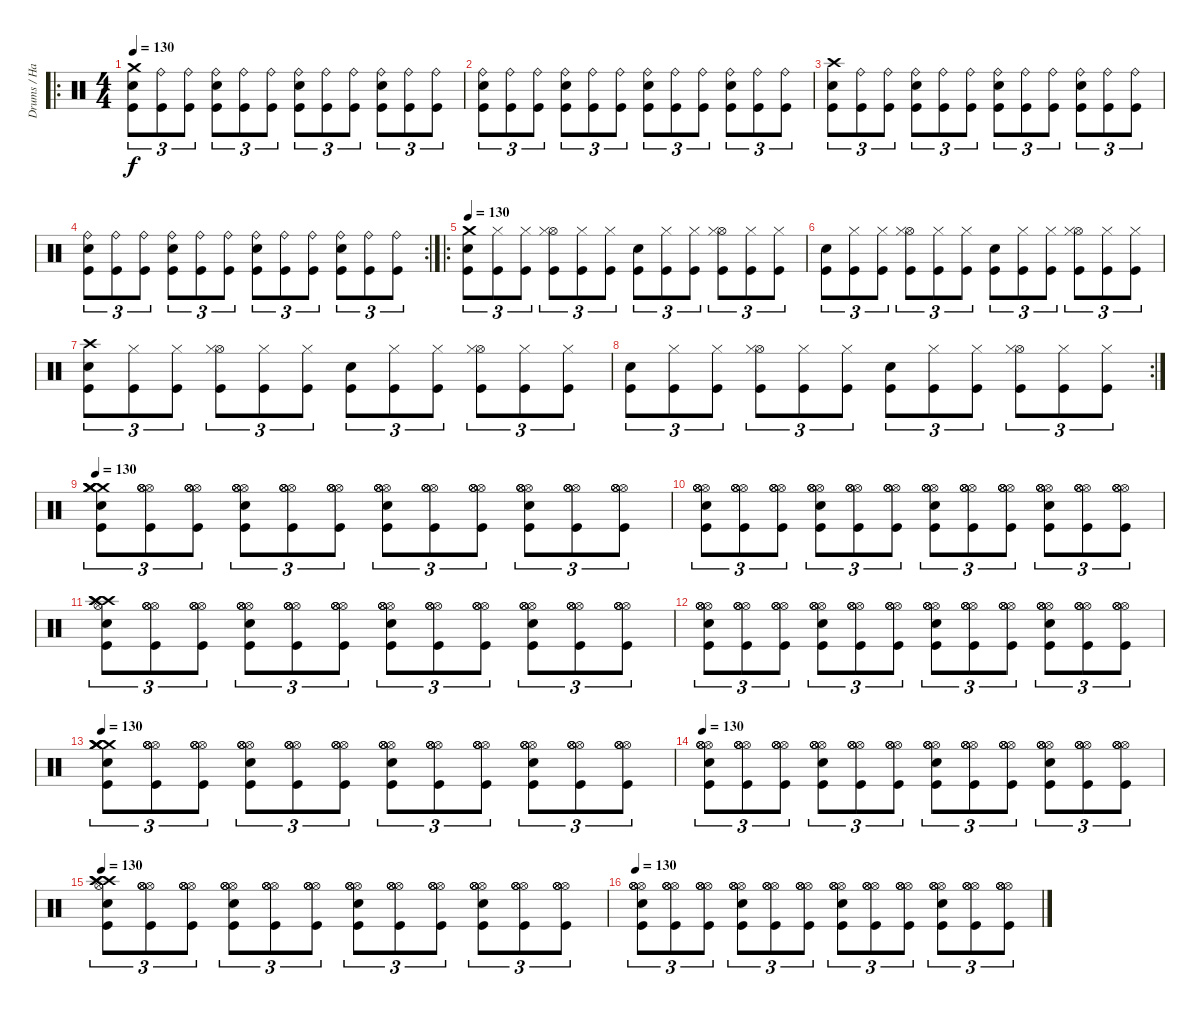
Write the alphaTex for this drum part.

\track ("Drums / Hammer of God" "Drums / Ha") {instrument percussion}
\staff {score}
\articulation defaults
\ro
\ts (4 4)
\tempo 130
\clef neutral
\ks c
("Crash medium (hit)" "Snare (hit) 2" "Kick (hit)").8{tu (3 2) dy f} ("Ride (bell)" "Kick (hit)").8{tu (3 2)} ("Ride (bell)" "Kick (hit)").8{tu (3 2)} ("Snare (hit) 2" "Ride (bell)" "Kick (hit)").8{tu (3 2)} ("Ride (bell)" "Kick (hit)").8{tu (3 2)} ("Ride (bell)" "Kick (hit)").8{tu (3 2)} ("Snare (hit) 2" "Ride (bell)" "Kick (hit)").8{tu (3 2)} ("Ride (bell)" "Kick (hit)").8{tu (3 2)} ("Ride (bell)" "Kick (hit)").8{tu (3 2)} ("Snare (hit) 2" "Ride (bell)" "Kick (hit)").8{tu (3 2)} ("Ride (bell)" "Kick (hit)").8{tu (3 2)} ("Ride (bell)" "Kick (hit)").8{tu (3 2)} |
("Snare (hit) 2" "Ride (bell)" "Kick (hit)").8{tu (3 2)} ("Ride (bell)" "Kick (hit)").8{tu (3 2)} ("Ride (bell)" "Kick (hit)").8{tu (3 2)} ("Snare (hit) 2" "Ride (bell)" "Kick (hit)").8{tu (3 2)} ("Ride (bell)" "Kick (hit)").8{tu (3 2)} ("Ride (bell)" "Kick (hit)").8{tu (3 2)} ("Snare (hit) 2" "Ride (bell)" "Kick (hit)").8{tu (3 2)} ("Ride (bell)" "Kick (hit)").8{tu (3 2)} ("Ride (bell)" "Kick (hit)").8{tu (3 2)} ("Snare (hit) 2" "Ride (bell)" "Kick (hit)").8{tu (3 2)} ("Ride (bell)" "Kick (hit)").8{tu (3 2)} ("Ride (bell)" "Kick (hit)").8{tu (3 2)} |
("Crash high (hit)" "Snare (hit) 2" "Kick (hit)").8{tu (3 2)} ("Ride (bell)" "Kick (hit)").8{tu (3 2)} ("Ride (bell)" "Kick (hit)").8{tu (3 2)} ("Snare (hit) 2" "Ride (bell)" "Kick (hit)").8{tu (3 2)} ("Ride (bell)" "Kick (hit)").8{tu (3 2)} ("Ride (bell)" "Kick (hit)").8{tu (3 2)} ("Snare (hit) 2" "Ride (bell)" "Kick (hit)").8{tu (3 2)} ("Ride (bell)" "Kick (hit)").8{tu (3 2)} ("Ride (bell)" "Kick (hit)").8{tu (3 2)} ("Snare (hit) 2" "Ride (bell)" "Kick (hit)").8{tu (3 2)} ("Ride (bell)" "Kick (hit)").8{tu (3 2)} ("Ride (bell)" "Kick (hit)").8{tu (3 2)} |
\rc 2
("Snare (hit) 2" "Ride (bell)" "Kick (hit)").8{tu (3 2)} ("Ride (bell)" "Kick (hit)").8{tu (3 2)} ("Ride (bell)" "Kick (hit)").8{tu (3 2)} ("Snare (hit) 2" "Ride (bell)" "Kick (hit)").8{tu (3 2)} ("Ride (bell)" "Kick (hit)").8{tu (3 2)} ("Ride (bell)" "Kick (hit)").8{tu (3 2)} ("Snare (hit) 2" "Ride (bell)" "Kick (hit)").8{tu (3 2)} ("Ride (bell)" "Kick (hit)").8{tu (3 2)} ("Ride (bell)" "Kick (hit)").8{tu (3 2)} ("Snare (hit) 2" "Ride (bell)" "Kick (hit)").8{tu (3 2)} ("Ride (bell)" "Kick (hit)").8{tu (3 2)} ("Ride (bell)" "Kick (hit)").8{tu (3 2)} |
\ro
\tempo 130
("Crash medium (hit)" "Snare (hit) 2" "Kick (hit)").8{tu (3 2)} ("Hi-Hat (closed)" "Kick (hit)").8{tu (3 2)} ("Hi-Hat (closed)" "Kick (hit)").8{tu (3 2)} ("Hi-Hat (open)" "Hi-Hat (closed)" "Kick (hit)").8{tu (3 2)} ("Hi-Hat (closed)" "Kick (hit)").8{tu (3 2)} ("Hi-Hat (closed)" "Kick (hit)").8{tu (3 2)} ("Snare (hit) 2" "Kick (hit)").8{tu (3 2)} ("Hi-Hat (closed)" "Kick (hit)").8{tu (3 2)} ("Hi-Hat (closed)" "Kick (hit)").8{tu (3 2)} ("Hi-Hat (open)" "Hi-Hat (closed)" "Kick (hit)").8{tu (3 2)} ("Hi-Hat (closed)" "Kick (hit)").8{tu (3 2)} ("Hi-Hat (closed)" "Kick (hit)").8{tu (3 2)} |
("Snare (hit) 2" "Kick (hit)").8{tu (3 2)} ("Hi-Hat (closed)" "Kick (hit)").8{tu (3 2)} ("Hi-Hat (closed)" "Kick (hit)").8{tu (3 2)} ("Hi-Hat (open)" "Hi-Hat (closed)" "Kick (hit)").8{tu (3 2)} ("Hi-Hat (closed)" "Kick (hit)").8{tu (3 2)} ("Hi-Hat (closed)" "Kick (hit)").8{tu (3 2)} ("Snare (hit) 2" "Kick (hit)").8{tu (3 2)} ("Hi-Hat (closed)" "Kick (hit)").8{tu (3 2)} ("Hi-Hat (closed)" "Kick (hit)").8{tu (3 2)} ("Hi-Hat (open)" "Hi-Hat (closed)" "Kick (hit)").8{tu (3 2)} ("Hi-Hat (closed)" "Kick (hit)").8{tu (3 2)} ("Hi-Hat (closed)" "Kick (hit)").8{tu (3 2)} |
("Crash high (hit)" "Snare (hit) 2" "Kick (hit)").8{tu (3 2)} ("Hi-Hat (closed)" "Kick (hit)").8{tu (3 2)} ("Hi-Hat (closed)" "Kick (hit)").8{tu (3 2)} ("Hi-Hat (open)" "Hi-Hat (closed)" "Kick (hit)").8{tu (3 2)} ("Hi-Hat (closed)" "Kick (hit)").8{tu (3 2)} ("Hi-Hat (closed)" "Kick (hit)").8{tu (3 2)} ("Snare (hit) 2" "Kick (hit)").8{tu (3 2)} ("Hi-Hat (closed)" "Kick (hit)").8{tu (3 2)} ("Hi-Hat (closed)" "Kick (hit)").8{tu (3 2)} ("Hi-Hat (open)" "Hi-Hat (closed)" "Kick (hit)").8{tu (3 2)} ("Hi-Hat (closed)" "Kick (hit)").8{tu (3 2)} ("Hi-Hat (closed)" "Kick (hit)").8{tu (3 2)} |
\rc 2
("Snare (hit) 2" "Kick (hit)").8{tu (3 2)} ("Hi-Hat (closed)" "Kick (hit)").8{tu (3 2)} ("Hi-Hat (closed)" "Kick (hit)").8{tu (3 2)} ("Hi-Hat (open)" "Hi-Hat (closed)" "Kick (hit)").8{tu (3 2)} ("Hi-Hat (closed)" "Kick (hit)").8{tu (3 2)} ("Hi-Hat (closed)" "Kick (hit)").8{tu (3 2)} ("Snare (hit) 2" "Kick (hit)").8{tu (3 2)} ("Hi-Hat (closed)" "Kick (hit)").8{tu (3 2)} ("Hi-Hat (closed)" "Kick (hit)").8{tu (3 2)} ("Hi-Hat (open)" "Hi-Hat (closed)" "Kick (hit)").8{tu (3 2)} ("Hi-Hat (closed)" "Kick (hit)").8{tu (3 2)} ("Hi-Hat (closed)" "Kick (hit)").8{tu (3 2)} |
\tempo 130
("Crash medium (hit)" "Crash medium (hit)" "Snare (hit) 2" "Crash medium (hit)" "Crash medium (hit)" "Kick (hit)").8{tu (3 2)} ("Hi-Hat (open)" "Hi-Hat (open)" "Hi-Hat (open)" "Hi-Hat (open)" "Kick (hit)").8{tu (3 2)} ("Hi-Hat (open)" "Hi-Hat (open)" "Hi-Hat (open)" "Hi-Hat (open)" "Kick (hit)").8{tu (3 2)} ("Hi-Hat (open)" "Hi-Hat (open)" "Snare (hit) 2" "Hi-Hat (open)" "Hi-Hat (open)" "Kick (hit)").8{tu (3 2)} ("Hi-Hat (open)" "Hi-Hat (open)" "Hi-Hat (open)" "Hi-Hat (open)" "Kick (hit)").8{tu (3 2)} ("Hi-Hat (open)" "Hi-Hat (open)" "Hi-Hat (open)" "Hi-Hat (open)" "Kick (hit)").8{tu (3 2)} ("Hi-Hat (open)" "Hi-Hat (open)" "Snare (hit) 2" "Hi-Hat (open)" "Hi-Hat (open)" "Kick (hit)").8{tu (3 2)} ("Hi-Hat (open)" "Hi-Hat (open)" "Hi-Hat (open)" "Hi-Hat (open)" "Kick (hit)").8{tu (3 2)} ("Hi-Hat (open)" "Hi-Hat (open)" "Hi-Hat (open)" "Hi-Hat (open)" "Kick (hit)").8{tu (3 2)} ("Hi-Hat (open)" "Hi-Hat (open)" "Snare (hit) 2" "Hi-Hat (open)" "Hi-Hat (open)" "Kick (hit)").8{tu (3 2)} ("Hi-Hat (open)" "Hi-Hat (open)" "Hi-Hat (open)" "Hi-Hat (open)" "Kick (hit)").8{tu (3 2)} ("Hi-Hat (open)" "Hi-Hat (open)" "Hi-Hat (open)" "Hi-Hat (open)" "Kick (hit)").8{tu (3 2)} |
("Hi-Hat (open)" "Hi-Hat (open)" "Snare (hit) 2" "Hi-Hat (open)" "Hi-Hat (open)" "Kick (hit)").8{tu (3 2)} ("Hi-Hat (open)" "Hi-Hat (open)" "Hi-Hat (open)" "Hi-Hat (open)" "Kick (hit)").8{tu (3 2)} ("Hi-Hat (open)" "Hi-Hat (open)" "Hi-Hat (open)" "Hi-Hat (open)" "Kick (hit)").8{tu (3 2)} ("Hi-Hat (open)" "Hi-Hat (open)" "Snare (hit) 2" "Hi-Hat (open)" "Hi-Hat (open)" "Kick (hit)").8{tu (3 2)} ("Hi-Hat (open)" "Hi-Hat (open)" "Hi-Hat (open)" "Hi-Hat (open)" "Kick (hit)").8{tu (3 2)} ("Hi-Hat (open)" "Hi-Hat (open)" "Hi-Hat (open)" "Hi-Hat (open)" "Kick (hit)").8{tu (3 2)} ("Hi-Hat (open)" "Hi-Hat (open)" "Snare (hit) 2" "Hi-Hat (open)" "Hi-Hat (open)" "Kick (hit)").8{tu (3 2)} ("Hi-Hat (open)" "Hi-Hat (open)" "Hi-Hat (open)" "Hi-Hat (open)" "Kick (hit)").8{tu (3 2)} ("Hi-Hat (open)" "Hi-Hat (open)" "Hi-Hat (open)" "Hi-Hat (open)" "Kick (hit)").8{tu (3 2)} ("Hi-Hat (open)" "Hi-Hat (open)" "Snare (hit) 2" "Hi-Hat (open)" "Hi-Hat (open)" "Kick (hit)").8{tu (3 2)} ("Hi-Hat (open)" "Hi-Hat (open)" "Hi-Hat (open)" "Hi-Hat (open)" "Kick (hit)").8{tu (3 2)} ("Hi-Hat (open)" "Hi-Hat (open)" "Hi-Hat (open)" "Hi-Hat (open)" "Kick (hit)").8{tu (3 2)} |
("Crash high (hit)" "Crash high (hit)" "Snare (hit) 2" "Crash high (hit)" "Hi-Hat (open)" "Kick (hit)").8{tu (3 2)} ("Hi-Hat (open)" "Hi-Hat (open)" "Hi-Hat (open)" "Hi-Hat (open)" "Kick (hit)").8{tu (3 2)} ("Hi-Hat (open)" "Hi-Hat (open)" "Hi-Hat (open)" "Hi-Hat (open)" "Kick (hit)").8{tu (3 2)} ("Hi-Hat (open)" "Hi-Hat (open)" "Snare (hit) 2" "Hi-Hat (open)" "Hi-Hat (open)" "Kick (hit)").8{tu (3 2)} ("Hi-Hat (open)" "Hi-Hat (open)" "Hi-Hat (open)" "Hi-Hat (open)" "Kick (hit)").8{tu (3 2)} ("Hi-Hat (open)" "Hi-Hat (open)" "Hi-Hat (open)" "Hi-Hat (open)" "Kick (hit)").8{tu (3 2)} ("Hi-Hat (open)" "Hi-Hat (open)" "Snare (hit) 2" "Hi-Hat (open)" "Hi-Hat (open)" "Kick (hit)").8{tu (3 2)} ("Hi-Hat (open)" "Hi-Hat (open)" "Hi-Hat (open)" "Hi-Hat (open)" "Kick (hit)").8{tu (3 2)} ("Hi-Hat (open)" "Hi-Hat (open)" "Hi-Hat (open)" "Hi-Hat (open)" "Kick (hit)").8{tu (3 2)} ("Hi-Hat (open)" "Hi-Hat (open)" "Snare (hit) 2" "Hi-Hat (open)" "Hi-Hat (open)" "Kick (hit)").8{tu (3 2)} ("Hi-Hat (open)" "Hi-Hat (open)" "Hi-Hat (open)" "Hi-Hat (open)" "Kick (hit)").8{tu (3 2)} ("Hi-Hat (open)" "Hi-Hat (open)" "Hi-Hat (open)" "Hi-Hat (open)" "Kick (hit)").8{tu (3 2)} |
("Hi-Hat (open)" "Hi-Hat (open)" "Snare (hit) 2" "Hi-Hat (open)" "Hi-Hat (open)" "Kick (hit)").8{tu (3 2)} ("Hi-Hat (open)" "Hi-Hat (open)" "Hi-Hat (open)" "Hi-Hat (open)" "Kick (hit)").8{tu (3 2)} ("Hi-Hat (open)" "Hi-Hat (open)" "Hi-Hat (open)" "Hi-Hat (open)" "Kick (hit)").8{tu (3 2)} ("Hi-Hat (open)" "Hi-Hat (open)" "Snare (hit) 2" "Hi-Hat (open)" "Hi-Hat (open)" "Kick (hit)").8{tu (3 2)} ("Hi-Hat (open)" "Hi-Hat (open)" "Hi-Hat (open)" "Hi-Hat (open)" "Kick (hit)").8{tu (3 2)} ("Hi-Hat (open)" "Hi-Hat (open)" "Hi-Hat (open)" "Hi-Hat (open)" "Kick (hit)").8{tu (3 2)} ("Hi-Hat (open)" "Hi-Hat (open)" "Snare (hit) 2" "Hi-Hat (open)" "Hi-Hat (open)" "Kick (hit)").8{tu (3 2)} ("Hi-Hat (open)" "Hi-Hat (open)" "Hi-Hat (open)" "Hi-Hat (open)" "Kick (hit)").8{tu (3 2)} ("Hi-Hat (open)" "Hi-Hat (open)" "Hi-Hat (open)" "Hi-Hat (open)" "Kick (hit)").8{tu (3 2)} ("Hi-Hat (open)" "Hi-Hat (open)" "Snare (hit) 2" "Hi-Hat (open)" "Hi-Hat (open)" "Kick (hit)").8{tu (3 2)} ("Hi-Hat (open)" "Hi-Hat (open)" "Hi-Hat (open)" "Hi-Hat (open)" "Kick (hit)").8{tu (3 2)} ("Hi-Hat (open)" "Hi-Hat (open)" "Hi-Hat (open)" "Hi-Hat (open)" "Kick (hit)").8{tu (3 2)} |
\tempo 130
("Crash medium (hit)" "Crash medium (hit)" "Snare (hit) 2" "Crash medium (hit)" "Crash medium (hit)" "Kick (hit)").8{tu (3 2)} ("Hi-Hat (open)" "Hi-Hat (open)" "Hi-Hat (open)" "Hi-Hat (open)" "Kick (hit)").8{tu (3 2)} ("Hi-Hat (open)" "Hi-Hat (open)" "Hi-Hat (open)" "Hi-Hat (open)" "Kick (hit)").8{tu (3 2)} ("Hi-Hat (open)" "Hi-Hat (open)" "Snare (hit) 2" "Hi-Hat (open)" "Hi-Hat (open)" "Kick (hit)").8{tu (3 2)} ("Hi-Hat (open)" "Hi-Hat (open)" "Hi-Hat (open)" "Hi-Hat (open)" "Kick (hit)").8{tu (3 2)} ("Hi-Hat (open)" "Hi-Hat (open)" "Hi-Hat (open)" "Hi-Hat (open)" "Kick (hit)").8{tu (3 2)} ("Hi-Hat (open)" "Hi-Hat (open)" "Snare (hit) 2" "Hi-Hat (open)" "Hi-Hat (open)" "Kick (hit)").8{tu (3 2)} ("Hi-Hat (open)" "Hi-Hat (open)" "Hi-Hat (open)" "Hi-Hat (open)" "Kick (hit)").8{tu (3 2)} ("Hi-Hat (open)" "Hi-Hat (open)" "Hi-Hat (open)" "Hi-Hat (open)" "Kick (hit)").8{tu (3 2)} ("Hi-Hat (open)" "Hi-Hat (open)" "Snare (hit) 2" "Hi-Hat (open)" "Hi-Hat (open)" "Kick (hit)").8{tu (3 2)} ("Hi-Hat (open)" "Hi-Hat (open)" "Hi-Hat (open)" "Hi-Hat (open)" "Kick (hit)").8{tu (3 2)} ("Hi-Hat (open)" "Hi-Hat (open)" "Hi-Hat (open)" "Hi-Hat (open)" "Kick (hit)").8{tu (3 2)} |
\tempo 130
("Hi-Hat (open)" "Hi-Hat (open)" "Snare (hit) 2" "Hi-Hat (open)" "Hi-Hat (open)" "Kick (hit)").8{tu (3 2)} ("Hi-Hat (open)" "Hi-Hat (open)" "Hi-Hat (open)" "Hi-Hat (open)" "Kick (hit)").8{tu (3 2)} ("Hi-Hat (open)" "Hi-Hat (open)" "Hi-Hat (open)" "Hi-Hat (open)" "Kick (hit)").8{tu (3 2)} ("Hi-Hat (open)" "Hi-Hat (open)" "Snare (hit) 2" "Hi-Hat (open)" "Hi-Hat (open)" "Kick (hit)").8{tu (3 2)} ("Hi-Hat (open)" "Hi-Hat (open)" "Hi-Hat (open)" "Hi-Hat (open)" "Kick (hit)").8{tu (3 2)} ("Hi-Hat (open)" "Hi-Hat (open)" "Hi-Hat (open)" "Hi-Hat (open)" "Kick (hit)").8{tu (3 2)} ("Hi-Hat (open)" "Hi-Hat (open)" "Snare (hit) 2" "Hi-Hat (open)" "Hi-Hat (open)" "Kick (hit)").8{tu (3 2)} ("Hi-Hat (open)" "Hi-Hat (open)" "Hi-Hat (open)" "Hi-Hat (open)" "Kick (hit)").8{tu (3 2)} ("Hi-Hat (open)" "Hi-Hat (open)" "Hi-Hat (open)" "Hi-Hat (open)" "Kick (hit)").8{tu (3 2)} ("Hi-Hat (open)" "Hi-Hat (open)" "Snare (hit) 2" "Hi-Hat (open)" "Hi-Hat (open)" "Kick (hit)").8{tu (3 2)} ("Hi-Hat (open)" "Hi-Hat (open)" "Hi-Hat (open)" "Hi-Hat (open)" "Kick (hit)").8{tu (3 2)} ("Hi-Hat (open)" "Hi-Hat (open)" "Hi-Hat (open)" "Hi-Hat (open)" "Kick (hit)").8{tu (3 2)} |
\tempo 130
("Crash high (hit)" "Crash high (hit)" "Snare (hit) 2" "Crash high (hit)" "Hi-Hat (open)" "Kick (hit)").8{tu (3 2)} ("Hi-Hat (open)" "Hi-Hat (open)" "Hi-Hat (open)" "Hi-Hat (open)" "Kick (hit)").8{tu (3 2)} ("Hi-Hat (open)" "Hi-Hat (open)" "Hi-Hat (open)" "Hi-Hat (open)" "Kick (hit)").8{tu (3 2)} ("Hi-Hat (open)" "Hi-Hat (open)" "Snare (hit) 2" "Hi-Hat (open)" "Hi-Hat (open)" "Kick (hit)").8{tu (3 2)} ("Hi-Hat (open)" "Hi-Hat (open)" "Hi-Hat (open)" "Hi-Hat (open)" "Kick (hit)").8{tu (3 2)} ("Hi-Hat (open)" "Hi-Hat (open)" "Hi-Hat (open)" "Hi-Hat (open)" "Kick (hit)").8{tu (3 2)} ("Hi-Hat (open)" "Hi-Hat (open)" "Snare (hit) 2" "Hi-Hat (open)" "Hi-Hat (open)" "Kick (hit)").8{tu (3 2)} ("Hi-Hat (open)" "Hi-Hat (open)" "Hi-Hat (open)" "Hi-Hat (open)" "Kick (hit)").8{tu (3 2)} ("Hi-Hat (open)" "Hi-Hat (open)" "Hi-Hat (open)" "Hi-Hat (open)" "Kick (hit)").8{tu (3 2)} ("Hi-Hat (open)" "Hi-Hat (open)" "Snare (hit) 2" "Hi-Hat (open)" "Hi-Hat (open)" "Kick (hit)").8{tu (3 2)} ("Hi-Hat (open)" "Hi-Hat (open)" "Hi-Hat (open)" "Hi-Hat (open)" "Kick (hit)").8{tu (3 2)} ("Hi-Hat (open)" "Hi-Hat (open)" "Hi-Hat (open)" "Hi-Hat (open)" "Kick (hit)").8{tu (3 2)} |
\tempo 130
("Hi-Hat (open)" "Hi-Hat (open)" "Snare (hit) 2" "Hi-Hat (open)" "Hi-Hat (open)" "Kick (hit)").8{tu (3 2)} ("Hi-Hat (open)" "Hi-Hat (open)" "Hi-Hat (open)" "Hi-Hat (open)" "Kick (hit)").8{tu (3 2)} ("Hi-Hat (open)" "Hi-Hat (open)" "Hi-Hat (open)" "Hi-Hat (open)" "Kick (hit)").8{tu (3 2)} ("Hi-Hat (open)" "Hi-Hat (open)" "Snare (hit) 2" "Hi-Hat (open)" "Hi-Hat (open)" "Kick (hit)").8{tu (3 2)} ("Hi-Hat (open)" "Hi-Hat (open)" "Hi-Hat (open)" "Hi-Hat (open)" "Kick (hit)").8{tu (3 2)} ("Hi-Hat (open)" "Hi-Hat (open)" "Hi-Hat (open)" "Hi-Hat (open)" "Kick (hit)").8{tu (3 2)} ("Hi-Hat (open)" "Hi-Hat (open)" "Snare (hit) 2" "Hi-Hat (open)" "Hi-Hat (open)" "Kick (hit)").8{tu (3 2)} ("Hi-Hat (open)" "Hi-Hat (open)" "Hi-Hat (open)" "Hi-Hat (open)" "Kick (hit)").8{tu (3 2)} ("Hi-Hat (open)" "Hi-Hat (open)" "Hi-Hat (open)" "Hi-Hat (open)" "Kick (hit)").8{tu (3 2)} ("Hi-Hat (open)" "Hi-Hat (open)" "Snare (hit) 2" "Hi-Hat (open)" "Hi-Hat (open)" "Kick (hit)").8{tu (3 2)} ("Hi-Hat (open)" "Hi-Hat (open)" "Hi-Hat (open)" "Hi-Hat (open)" "Kick (hit)").8{tu (3 2)} ("Hi-Hat (open)" "Hi-Hat (open)" "Hi-Hat (open)" "Hi-Hat (open)" "Kick (hit)").8{tu (3 2)}
